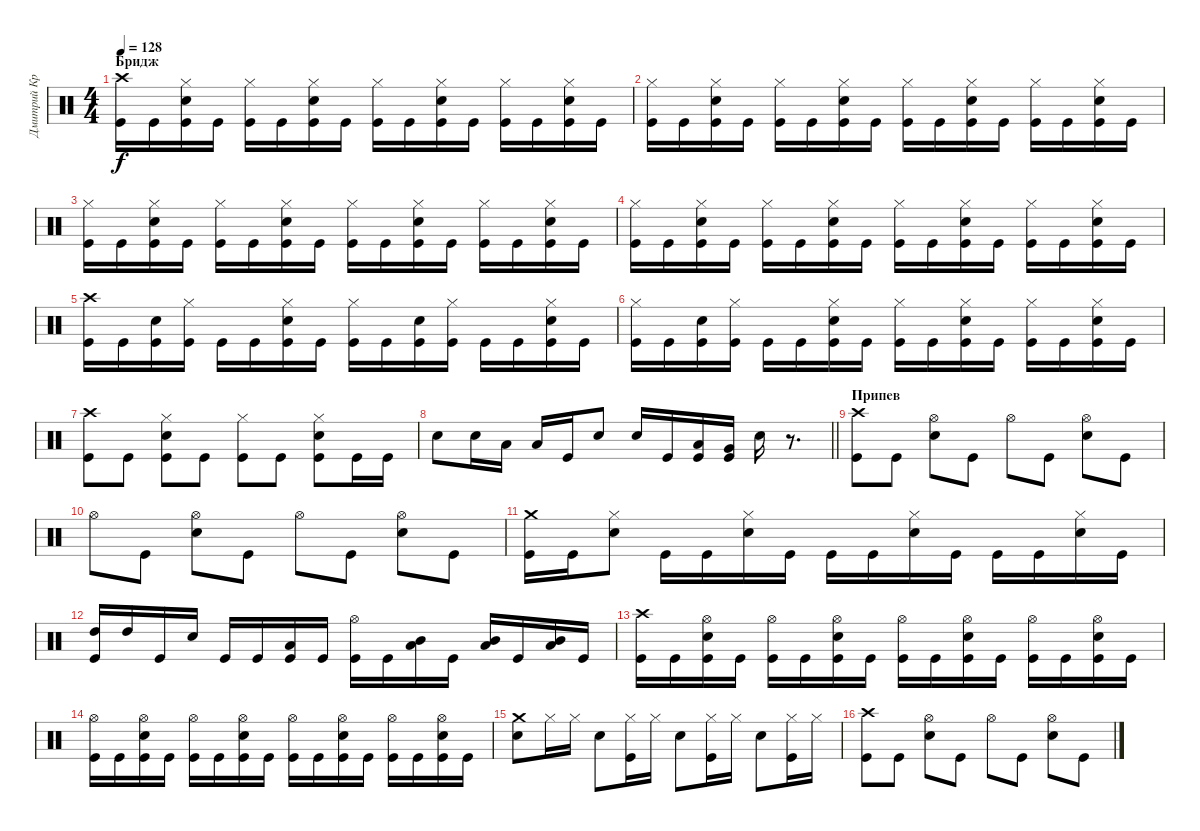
\track ("Дмитрий Кривенков" "Дмитрий Кр") {instrument percussion}
\staff {score}
\articulation defaults
\ts (4 4)
\section ("" "Бридж")
\tempo 128
\clef neutral
\ks c
("Crash high (hit)" "Kick (hit)").16{dy f} "Kick (hit)".16 ("Snare (hit) 2" "Hi-Hat (closed)" "Kick (hit)").16 "Kick (hit)".16 ("Hi-Hat (closed)" "Kick (hit)").16 "Kick (hit)".16 ("Snare (hit) 2" "Hi-Hat (closed)" "Kick (hit)").16 "Kick (hit)".16 ("Hi-Hat (closed)" "Kick (hit)").16 "Kick (hit)".16 ("Snare (hit) 2" "Hi-Hat (closed)" "Kick (hit)").16 "Kick (hit)".16 ("Hi-Hat (closed)" "Kick (hit)").16 "Kick (hit)".16 ("Snare (hit) 2" "Hi-Hat (closed)" "Kick (hit)").16 "Kick (hit)".16 |
("Hi-Hat (closed)" "Kick (hit)").16 "Kick (hit)".16 ("Snare (hit) 2" "Hi-Hat (closed)" "Kick (hit)").16 "Kick (hit)".16 ("Hi-Hat (closed)" "Kick (hit)").16 "Kick (hit)".16 ("Snare (hit) 2" "Hi-Hat (closed)" "Kick (hit)").16 "Kick (hit)".16 ("Hi-Hat (closed)" "Kick (hit)").16 "Kick (hit)".16 ("Snare (hit) 2" "Hi-Hat (closed)" "Kick (hit)").16 "Kick (hit)".16 ("Hi-Hat (closed)" "Kick (hit)").16 "Kick (hit)".16 ("Snare (hit) 2" "Hi-Hat (closed)" "Kick (hit)").16 "Kick (hit)".16 |
("Hi-Hat (closed)" "Kick (hit)").16 "Kick (hit)".16 ("Snare (hit) 2" "Hi-Hat (closed)" "Kick (hit)").16 "Kick (hit)".16 ("Hi-Hat (closed)" "Kick (hit)").16 "Kick (hit)".16 ("Snare (hit) 2" "Hi-Hat (closed)" "Kick (hit)").16 "Kick (hit)".16 ("Hi-Hat (closed)" "Kick (hit)").16 "Kick (hit)".16 ("Snare (hit) 2" "Hi-Hat (closed)" "Kick (hit)").16 "Kick (hit)".16 ("Hi-Hat (closed)" "Kick (hit)").16 "Kick (hit)".16 ("Snare (hit) 2" "Hi-Hat (closed)" "Kick (hit)").16 "Kick (hit)".16 |
("Hi-Hat (closed)" "Kick (hit)").16 "Kick (hit)".16 ("Snare (hit) 2" "Hi-Hat (closed)" "Kick (hit)").16 "Kick (hit)".16 ("Hi-Hat (closed)" "Kick (hit)").16 "Kick (hit)".16 ("Snare (hit) 2" "Hi-Hat (closed)" "Kick (hit)").16 "Kick (hit)".16 ("Hi-Hat (closed)" "Kick (hit)").16 "Kick (hit)".16 ("Snare (hit) 2" "Hi-Hat (closed)" "Kick (hit)").16 "Kick (hit)".16 ("Hi-Hat (closed)" "Kick (hit)").16 "Kick (hit)".16 ("Snare (hit) 2" "Hi-Hat (closed)" "Kick (hit)").16 "Kick (hit)".16 |
("Crash high (hit)" "Kick (hit)").16 "Kick (hit)".16 ("Snare (hit) 2" "Kick (hit)").16 ("Hi-Hat (closed)" "Kick (hit)").16 "Kick (hit)".16 "Kick (hit)".16 ("Snare (hit) 2" "Hi-Hat (closed)" "Kick (hit)").16 "Kick (hit)".16 ("Hi-Hat (closed)" "Kick (hit)").16 "Kick (hit)".16 ("Snare (hit) 2" "Kick (hit)").16 ("Hi-Hat (closed)" "Kick (hit)").16 "Kick (hit)".16 "Kick (hit)".16 ("Snare (hit) 2" "Hi-Hat (closed)" "Kick (hit)").16 "Kick (hit)".16 |
("Hi-Hat (closed)" "Kick (hit)").16 "Kick (hit)".16 ("Snare (hit) 2" "Kick (hit)").16 ("Hi-Hat (closed)" "Kick (hit)").16 "Kick (hit)".16 "Kick (hit)".16 ("Snare (hit) 2" "Hi-Hat (closed)" "Kick (hit)").16 "Kick (hit)".16 ("Hi-Hat (closed)" "Kick (hit)").16 "Kick (hit)".16 ("Snare (hit) 2" "Hi-Hat (closed)" "Kick (hit)").16 "Kick (hit)".16 ("Hi-Hat (closed)" "Kick (hit)").16 "Kick (hit)".16 ("Snare (hit) 2" "Hi-Hat (closed)" "Kick (hit)").16 "Kick (hit)".16 |
("Crash high (hit)" "Kick (hit)").8 "Kick (hit)".8 ("Snare (hit) 2" "Hi-Hat (closed)" "Kick (hit)").8 "Kick (hit)".8 ("Hi-Hat (closed)" "Kick (hit)").8 "Kick (hit)".8 ("Snare (hit) 2" "Hi-Hat (closed)" "Kick (hit)").8 "Kick (hit)".16 "Kick (hit)".16 |
\barLineRight lightlight "Snare (hit) 2".8 "Snare (hit) 2".16 "Low Tom (hit)".16 "Low Tom (hit)".16 "Kick (hit)".16 "Snare (hit) 2".8 "Snare (hit) 2".16 "Kick (hit)".16
("Kick (hit)" "Low Tom (hit)").16 ("Kick (hit)" "Very Low Tom (hit)").16 "Snare (hit) 2".16 r.8{d} |
\section ("" "Припев")
("Crash high (hit)" "Kick (hit)").8 "Kick (hit)".8 ("Snare (hit) 2" "Hi-Hat (open)").8 "Kick (hit)".8 "Hi-Hat (open)".8 "Kick (hit)".8 ("Snare (hit) 2" "Hi-Hat (open)").8 "Kick (hit)".8 |
"Hi-Hat (open)".8 "Kick (hit)".8 ("Snare (hit) 2" "Hi-Hat (open)").8 "Kick (hit)".8 "Hi-Hat (open)".8 "Kick (hit)".8 ("Snare (hit) 2" "Hi-Hat (open)").8 "Kick (hit)".8 |
("Crash medium (hit)" "Kick (hit)").16 "Kick (hit)".16 ("Snare (hit) 2" "Hi-Hat (closed)").8 "Kick (hit)".16 "Kick (hit)".16 ("Snare (hit) 2" "Hi-Hat (closed)").16 "Kick (hit)".16 "Kick (hit)".16 "Kick (hit)".16 ("Snare (hit) 2" "Hi-Hat (closed)").16 "Kick (hit)".16 "Kick (hit)".16 "Kick (hit)".16 ("Snare (hit) 2" "Hi-Hat (closed)").16 "Kick (hit)".16 |
("High Tom (hit)" "Kick (hit)").16 "High Tom (hit)".16 "Kick (hit)".16 "Snare (hit) 2".16 "Kick (hit)".16 "Kick (hit)".16 ("Kick (hit)" "Low Tom (hit)").16 "Kick (hit)".16 ("Kick (hit)" "Hi-Hat (open)").16 "Kick (hit)".16 ("Mid Tom (hit)" "Low Tom (hit)").16{bd 240} "Kick (hit)".16 ("Mid Tom (hit)" "Low Tom (hit)").16{bd 240} "Kick (hit)".16 ("Mid Tom (hit)" "Low Tom (hit)").16{bd 240} "Kick (hit)".16 |
("Crash high (hit)" "Kick (hit)").16 "Kick (hit)".16 ("Snare (hit) 2" "Hi-Hat (open)" "Kick (hit)").16 "Kick (hit)".16 ("Hi-Hat (open)" "Kick (hit)").16 "Kick (hit)".16 ("Snare (hit) 2" "Hi-Hat (open)" "Kick (hit)").16 "Kick (hit)".16 ("Hi-Hat (open)" "Kick (hit)").16 "Kick (hit)".16 ("Snare (hit) 2" "Hi-Hat (open)" "Kick (hit)").16 "Kick (hit)".16 ("Hi-Hat (open)" "Kick (hit)").16 "Kick (hit)".16 ("Snare (hit) 2" "Hi-Hat (open)" "Kick (hit)").16 "Kick (hit)".16 |
("Hi-Hat (open)" "Kick (hit)").16 "Kick (hit)".16 ("Snare (hit) 2" "Hi-Hat (open)" "Kick (hit)").16 "Kick (hit)".16 ("Hi-Hat (open)" "Kick (hit)").16 "Kick (hit)".16 ("Snare (hit) 2" "Hi-Hat (open)" "Kick (hit)").16 "Kick (hit)".16 ("Hi-Hat (open)" "Kick (hit)").16 "Kick (hit)".16 ("Snare (hit) 2" "Hi-Hat (open)" "Kick (hit)").16 "Kick (hit)".16 ("Hi-Hat (open)" "Kick (hit)").16 "Kick (hit)".16 ("Snare (hit) 2" "Hi-Hat (open)" "Kick (hit)").16 "Kick (hit)".16 |
("Crash medium (hit)" "Snare (hit) 2").8 "Hi-Hat (closed)".16 "Hi-Hat (closed)".16 "Snare (hit) 2".8 ("Kick (hit)" "Hi-Hat (closed)").16 "Hi-Hat (closed)".16 "Snare (hit) 2".8 ("Kick (hit)" "Hi-Hat (closed)").16 "Hi-Hat (closed)".16 "Snare (hit) 2".8 ("Kick (hit)" "Hi-Hat (closed)").16 "Hi-Hat (closed)".16 |
("Crash high (hit)" "Kick (hit)").8 "Kick (hit)".8 ("Snare (hit) 2" "Hi-Hat (open)").8 "Kick (hit)".8 "Hi-Hat (open)".8 "Kick (hit)".8 ("Snare (hit) 2" "Hi-Hat (open)").8 "Kick (hit)".8
